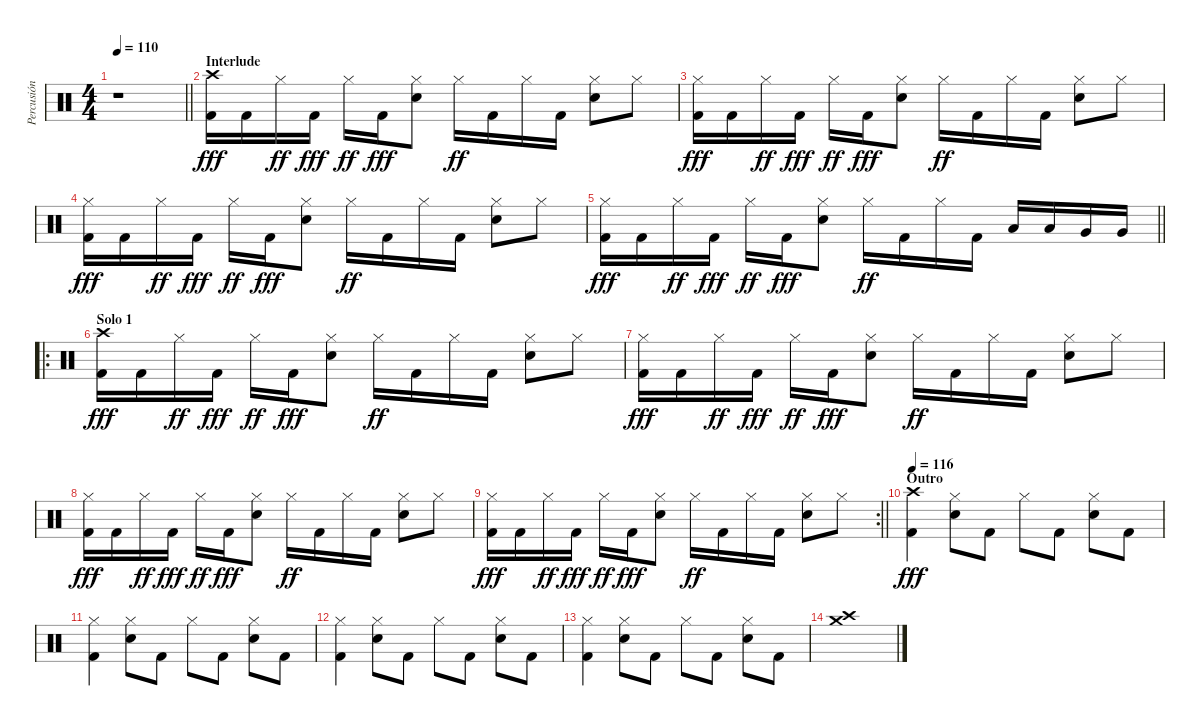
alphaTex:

\track ("Percusión" "Percusión") {instrument percussion}
\staff {score}
\articulation defaults
\ts (4 4)
\tempo 110
\clef neutral
\barLineRight lightlight
\ks c
r.1{dy f} |
\section ("" "Interlude")
("Crash high (hit)" "Kick (hit) 2").16{dy fff} "Kick (hit) 2".16 "Hi-Hat (closed)".16{dy ff} "Kick (hit) 2".16{dy fff} "Hi-Hat (closed)".16{dy ff} "Kick (hit) 2".16{dy fff} ("Hi-Hat (closed)" "Electric Snare (hit)").8 "Hi-Hat (closed)".16{dy ff} "Kick (hit) 2".16 "Hi-Hat (closed)".16 "Kick (hit) 2".16 ("Hi-Hat (closed)" "Electric Snare (hit)").8 "Hi-Hat (closed)".8 |
("Hi-Hat (closed)" "Kick (hit) 2").16{dy fff} "Kick (hit) 2".16 "Hi-Hat (closed)".16{dy ff} "Kick (hit) 2".16{dy fff} "Hi-Hat (closed)".16{dy ff} "Kick (hit) 2".16{dy fff} ("Hi-Hat (closed)" "Electric Snare (hit)").8 "Hi-Hat (closed)".16{dy ff} "Kick (hit) 2".16 "Hi-Hat (closed)".16 "Kick (hit) 2".16 ("Hi-Hat (closed)" "Electric Snare (hit)").8 "Hi-Hat (closed)".8 |
("Hi-Hat (closed)" "Kick (hit) 2").16{dy fff} "Kick (hit) 2".16 "Hi-Hat (closed)".16{dy ff} "Kick (hit) 2".16{dy fff} "Hi-Hat (closed)".16{dy ff} "Kick (hit) 2".16{dy fff} ("Hi-Hat (closed)" "Electric Snare (hit)").8 "Hi-Hat (closed)".16{dy ff} "Kick (hit) 2".16 "Hi-Hat (closed)".16 "Kick (hit) 2".16 ("Hi-Hat (closed)" "Electric Snare (hit)").8 "Hi-Hat (closed)".8 |
\barLineRight lightlight
("Hi-Hat (closed)" "Kick (hit) 2").16{dy fff} "Kick (hit) 2".16 "Hi-Hat (closed)".16{dy ff} "Kick (hit) 2".16{dy fff} "Hi-Hat (closed)".16{dy ff} "Kick (hit) 2".16{dy fff} ("Hi-Hat (closed)" "Electric Snare (hit)").8 "Hi-Hat (closed)".16{dy ff} "Kick (hit) 2".16 "Hi-Hat (closed)".16 "Kick (hit) 2".16 "Low Tom (hit)".16 "Low Tom (hit)".16 "Very Low Tom (hit)".16 "Very Low Tom (hit)".16 |
\ro
\section ("" "Solo 1")
("Crash high (hit)" "Kick (hit) 2").16{dy fff} "Kick (hit) 2".16 "Hi-Hat (closed)".16{dy ff} "Kick (hit) 2".16{dy fff} "Hi-Hat (closed)".16{dy ff} "Kick (hit) 2".16{dy fff} ("Hi-Hat (closed)" "Electric Snare (hit)").8 "Hi-Hat (closed)".16{dy ff} "Kick (hit) 2".16 "Hi-Hat (closed)".16 "Kick (hit) 2".16 ("Hi-Hat (closed)" "Electric Snare (hit)").8 "Hi-Hat (closed)".8 |
("Hi-Hat (closed)" "Kick (hit) 2").16{dy fff} "Kick (hit) 2".16 "Hi-Hat (closed)".16{dy ff} "Kick (hit) 2".16{dy fff} "Hi-Hat (closed)".16{dy ff} "Kick (hit) 2".16{dy fff} ("Hi-Hat (closed)" "Electric Snare (hit)").8 "Hi-Hat (closed)".16{dy ff} "Kick (hit) 2".16 "Hi-Hat (closed)".16 "Kick (hit) 2".16 ("Hi-Hat (closed)" "Electric Snare (hit)").8 "Hi-Hat (closed)".8 |
("Hi-Hat (closed)" "Kick (hit) 2").16{dy fff} "Kick (hit) 2".16 "Hi-Hat (closed)".16{dy ff} "Kick (hit) 2".16{dy fff} "Hi-Hat (closed)".16{dy ff} "Kick (hit) 2".16{dy fff} ("Hi-Hat (closed)" "Electric Snare (hit)").8 "Hi-Hat (closed)".16{dy ff} "Kick (hit) 2".16 "Hi-Hat (closed)".16 "Kick (hit) 2".16 ("Hi-Hat (closed)" "Electric Snare (hit)").8 "Hi-Hat (closed)".8 |
\rc 2
\barLineRight lightlight
("Hi-Hat (closed)" "Kick (hit) 2").16{dy fff} "Kick (hit) 2".16 "Hi-Hat (closed)".16{dy ff} "Kick (hit) 2".16{dy fff} "Hi-Hat (closed)".16{dy ff} "Kick (hit) 2".16{dy fff} ("Hi-Hat (closed)" "Electric Snare (hit)").8 "Hi-Hat (closed)".16{dy ff} "Kick (hit) 2".16 "Hi-Hat (closed)".16 "Kick (hit) 2".16 ("Hi-Hat (closed)" "Electric Snare (hit)").8 "Hi-Hat (closed)".8 |
\section ("" "Outro")
\tempo 116
("Crash high (hit)" "Kick (hit) 2").4{dy fff} ("Hi-Hat (closed)" "Electric Snare (hit)").8 "Kick (hit) 2".8 "Hi-Hat (closed)".8 "Kick (hit) 2".8 ("Hi-Hat (closed)" "Electric Snare (hit)").8 "Kick (hit) 2".8 |
("Hi-Hat (closed)" "Kick (hit) 2").4 ("Hi-Hat (closed)" "Electric Snare (hit)").8 "Kick (hit) 2".8 "Hi-Hat (closed)".8 "Kick (hit) 2".8 ("Hi-Hat (closed)" "Electric Snare (hit)").8 "Kick (hit) 2".8 |
("Hi-Hat (closed)" "Kick (hit) 2").4 ("Hi-Hat (closed)" "Electric Snare (hit)").8 "Kick (hit) 2".8 "Hi-Hat (closed)".8 "Kick (hit) 2".8 ("Hi-Hat (closed)" "Electric Snare (hit)").8 "Kick (hit) 2".8 |
("Hi-Hat (closed)" "Kick (hit) 2").4 ("Hi-Hat (closed)" "Electric Snare (hit)").8 "Kick (hit) 2".8 "Hi-Hat (closed)".8 "Kick (hit) 2".8 ("Hi-Hat (closed)" "Electric Snare (hit)").8 "Kick (hit) 2".8 |
("Crash high (hit)" "Crash medium (hit)").1
